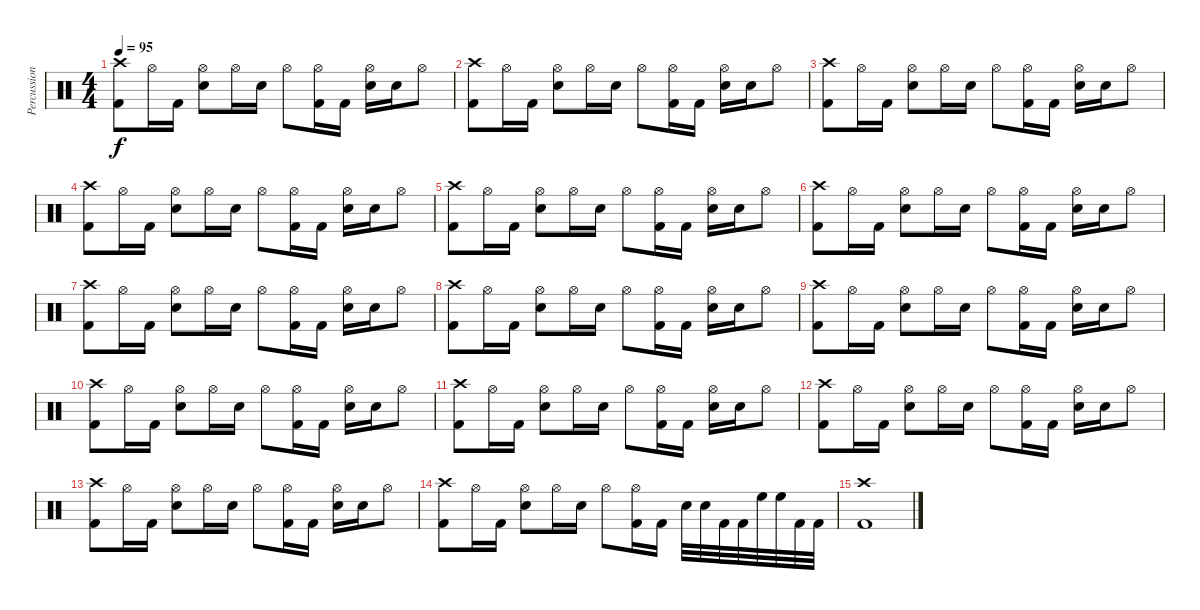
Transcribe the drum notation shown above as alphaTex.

\track ("Percussion" "Percussion") {instrument percussion}
\staff {score}
\articulation defaults
\ts (4 4)
\tempo 95
\clef neutral
\ks c
("Crash high (hit)" "Kick (hit) 2").8{dy f} "Hi-Hat (open)".16 "Kick (hit) 2".16 ("Hi-Hat (open)" "Snare (hit) 2").8 "Hi-Hat (open)".16 "Snare (hit) 2".16 "Hi-Hat (open)".8 ("Hi-Hat (open)" "Kick (hit) 2").16 "Kick (hit) 2".16 ("Hi-Hat (open)" "Snare (hit) 2").16 "Snare (hit) 2".16 "Hi-Hat (open)".8 |
("Crash high (hit)" "Kick (hit) 2").8 "Hi-Hat (open)".16 "Kick (hit) 2".16 ("Hi-Hat (open)" "Snare (hit) 2").8 "Hi-Hat (open)".16 "Snare (hit) 2".16 "Hi-Hat (open)".8 ("Hi-Hat (open)" "Kick (hit) 2").16 "Kick (hit) 2".16 ("Hi-Hat (open)" "Snare (hit) 2").16 "Snare (hit) 2".16 "Hi-Hat (open)".8 |
("Crash high (hit)" "Kick (hit) 2").8 "Hi-Hat (open)".16 "Kick (hit) 2".16 ("Hi-Hat (open)" "Snare (hit) 2").8 "Hi-Hat (open)".16 "Snare (hit) 2".16 "Hi-Hat (open)".8 ("Hi-Hat (open)" "Kick (hit) 2").16 "Kick (hit) 2".16 ("Hi-Hat (open)" "Snare (hit) 2").16 "Snare (hit) 2".16 "Hi-Hat (open)".8 |
("Crash high (hit)" "Kick (hit) 2").8 "Hi-Hat (open)".16 "Kick (hit) 2".16 ("Hi-Hat (open)" "Snare (hit) 2").8 "Hi-Hat (open)".16 "Snare (hit) 2".16 "Hi-Hat (open)".8 ("Hi-Hat (open)" "Kick (hit) 2").16 "Kick (hit) 2".16 ("Hi-Hat (open)" "Snare (hit) 2").16 "Snare (hit) 2".16 "Hi-Hat (open)".8 |
("Crash high (hit)" "Kick (hit) 2").8 "Hi-Hat (open)".16 "Kick (hit) 2".16 ("Hi-Hat (open)" "Snare (hit) 2").8 "Hi-Hat (open)".16 "Snare (hit) 2".16 "Hi-Hat (open)".8 ("Hi-Hat (open)" "Kick (hit) 2").16 "Kick (hit) 2".16 ("Hi-Hat (open)" "Snare (hit) 2").16 "Snare (hit) 2".16 "Hi-Hat (open)".8 |
("Crash high (hit)" "Kick (hit) 2").8 "Hi-Hat (open)".16 "Kick (hit) 2".16 ("Hi-Hat (open)" "Snare (hit) 2").8 "Hi-Hat (open)".16 "Snare (hit) 2".16 "Hi-Hat (open)".8 ("Hi-Hat (open)" "Kick (hit) 2").16 "Kick (hit) 2".16 ("Hi-Hat (open)" "Snare (hit) 2").16 "Snare (hit) 2".16 "Hi-Hat (open)".8 |
("Crash high (hit)" "Kick (hit) 2").8 "Hi-Hat (open)".16 "Kick (hit) 2".16 ("Hi-Hat (open)" "Snare (hit) 2").8 "Hi-Hat (open)".16 "Snare (hit) 2".16 "Hi-Hat (open)".8 ("Hi-Hat (open)" "Kick (hit) 2").16 "Kick (hit) 2".16 ("Hi-Hat (open)" "Snare (hit) 2").16 "Snare (hit) 2".16 "Hi-Hat (open)".8 |
("Crash high (hit)" "Kick (hit) 2").8 "Hi-Hat (open)".16 "Kick (hit) 2".16 ("Hi-Hat (open)" "Snare (hit) 2").8 "Hi-Hat (open)".16 "Snare (hit) 2".16 "Hi-Hat (open)".8 ("Hi-Hat (open)" "Kick (hit) 2").16 "Kick (hit) 2".16 ("Hi-Hat (open)" "Snare (hit) 2").16 "Snare (hit) 2".16 "Hi-Hat (open)".8 |
("Crash high (hit)" "Kick (hit) 2").8 "Hi-Hat (open)".16 "Kick (hit) 2".16 ("Hi-Hat (open)" "Snare (hit) 2").8 "Hi-Hat (open)".16 "Snare (hit) 2".16 "Hi-Hat (open)".8 ("Hi-Hat (open)" "Kick (hit) 2").16 "Kick (hit) 2".16 ("Hi-Hat (open)" "Snare (hit) 2").16 "Snare (hit) 2".16 "Hi-Hat (open)".8 |
("Crash high (hit)" "Kick (hit) 2").8 "Hi-Hat (open)".16 "Kick (hit) 2".16 ("Hi-Hat (open)" "Snare (hit) 2").8 "Hi-Hat (open)".16 "Snare (hit) 2".16 "Hi-Hat (open)".8 ("Hi-Hat (open)" "Kick (hit) 2").16 "Kick (hit) 2".16 ("Hi-Hat (open)" "Snare (hit) 2").16 "Snare (hit) 2".16 "Hi-Hat (open)".8 |
("Crash high (hit)" "Kick (hit) 2").8 "Hi-Hat (open)".16 "Kick (hit) 2".16 ("Hi-Hat (open)" "Snare (hit) 2").8 "Hi-Hat (open)".16 "Snare (hit) 2".16 "Hi-Hat (open)".8 ("Hi-Hat (open)" "Kick (hit) 2").16 "Kick (hit) 2".16 ("Hi-Hat (open)" "Snare (hit) 2").16 "Snare (hit) 2".16 "Hi-Hat (open)".8 |
("Crash high (hit)" "Kick (hit) 2").8 "Hi-Hat (open)".16 "Kick (hit) 2".16 ("Hi-Hat (open)" "Snare (hit) 2").8 "Hi-Hat (open)".16 "Snare (hit) 2".16 "Hi-Hat (open)".8 ("Hi-Hat (open)" "Kick (hit) 2").16 "Kick (hit) 2".16 ("Hi-Hat (open)" "Snare (hit) 2").16 "Snare (hit) 2".16 "Hi-Hat (open)".8 |
("Crash high (hit)" "Kick (hit) 2").8 "Hi-Hat (open)".16 "Kick (hit) 2".16 ("Hi-Hat (open)" "Snare (hit) 2").8 "Hi-Hat (open)".16 "Snare (hit) 2".16 "Hi-Hat (open)".8 ("Hi-Hat (open)" "Kick (hit) 2").16 "Kick (hit) 2".16 ("Hi-Hat (open)" "Snare (hit) 2").16 "Snare (hit) 2".16 "Hi-Hat (open)".8 |
("Crash high (hit)" "Kick (hit) 2").8 "Hi-Hat (open)".16 "Kick (hit) 2".16 ("Hi-Hat (open)" "Snare (hit) 2").8 "Hi-Hat (open)".16 "Snare (hit) 2".16 "Hi-Hat (open)".8 ("Hi-Hat (open)" "Kick (hit) 2").16 "Kick (hit) 2".16 "Snare (hit) 2".32 "Snare (hit) 2".32 "Kick (hit) 2".32 "Kick (hit) 2".32 "High Floor Tom (hit)".32 "High Floor Tom (hit)".32 "Kick (hit) 2".32 "Kick (hit) 2".32 |
("Crash high (hit)" "Kick (hit) 2").1
